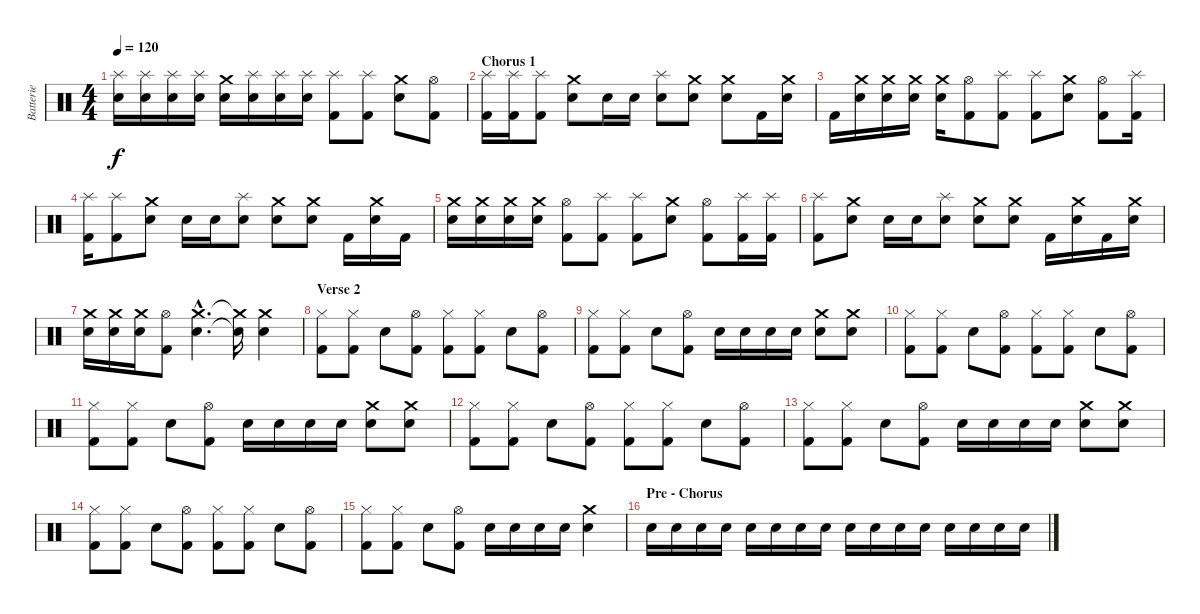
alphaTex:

\track ("Batterie" "Batterie") {instrument percussion}
\staff {score}
\articulation defaults
\ts (4 4)
\tempo 120
\clef neutral
\ks c
("Splash (hit)" "Snare (hit) 2").16{dy f} ("Splash (hit)" "Snare (hit) 2").16 ("Splash (hit)" "Snare (hit) 2").16 ("Splash (hit)" "Snare (hit) 2").16 ("Crash medium (hit)" "Snare (hit) 2").16 ("Splash (hit)" "Snare (hit) 2").16 ("Splash (hit)" "Snare (hit) 2").16 ("Splash (hit)" "Snare (hit) 2").16 ("Splash (hit)" "Kick (hit) 2").8 ("Splash (hit)" "Kick (hit) 2").8 ("Crash medium (hit)" "Snare (hit) 2").8 ("Hi-Hat (open)" "Kick (hit) 2").8 |
\section ("" "Chorus 1")
("Splash (hit)" "Kick (hit) 2").16 ("Splash (hit)" "Kick (hit) 2").16 ("Splash (hit)" "Kick (hit) 2").8 ("Crash medium (hit)" "Snare (hit) 2").8 "Snare (hit) 2".16 "Snare (hit) 2".16 ("Splash (hit)" "Snare (hit) 2").8 ("Crash medium (hit)" "Snare (hit) 2").8 ("Crash medium (hit)" "Snare (hit) 2").8 "Kick (hit) 2".16 ("Crash medium (hit)" "Snare (hit) 2").16 |
"Kick (hit) 2".16 ("Crash medium (hit)" "Snare (hit) 2").16 ("Crash medium (hit)" "Snare (hit) 2").16 ("Crash medium (hit)" "Snare (hit) 2").16 ("Crash medium (hit)" "Snare (hit) 2").16 ("Hi-Hat (open)" "Kick (hit) 2").8 ("Splash (hit)" "Kick (hit) 2").8 ("Splash (hit)" "Kick (hit) 2").8 ("Crash medium (hit)" "Snare (hit) 2").8 ("Hi-Hat (open)" "Kick (hit) 2").8 ("Splash (hit)" "Kick (hit) 2").16 |
("Splash (hit)" "Kick (hit) 2").16 ("Splash (hit)" "Kick (hit) 2").8 ("Crash medium (hit)" "Snare (hit) 2").8 "Snare (hit) 2".16 "Snare (hit) 2".16 ("Splash (hit)" "Snare (hit) 2").8 ("Crash medium (hit)" "Snare (hit) 2").8 ("Crash medium (hit)" "Snare (hit) 2").8 "Kick (hit) 2".16 ("Crash medium (hit)" "Snare (hit) 2").16 "Kick (hit) 2".16 |
("Crash medium (hit)" "Snare (hit) 2").16 ("Crash medium (hit)" "Snare (hit) 2").16 ("Crash medium (hit)" "Snare (hit) 2").16 ("Crash medium (hit)" "Snare (hit) 2").16 ("Hi-Hat (open)" "Kick (hit) 2").8 ("Splash (hit)" "Kick (hit) 2").8 ("Splash (hit)" "Kick (hit) 2").8 ("Crash medium (hit)" "Snare (hit) 2").8 ("Hi-Hat (open)" "Kick (hit) 2").8 ("Splash (hit)" "Kick (hit) 2").16 ("Splash (hit)" "Kick (hit) 2").16 |
("Splash (hit)" "Kick (hit) 2").8 ("Crash medium (hit)" "Snare (hit) 2").8 "Snare (hit) 2".16 "Snare (hit) 2".16 ("Splash (hit)" "Snare (hit) 2").8 ("Crash medium (hit)" "Snare (hit) 2").8 ("Crash medium (hit)" "Snare (hit) 2").8 "Kick (hit) 2".16 ("Crash medium (hit)" "Snare (hit) 2").16 "Kick (hit) 2".16 ("Crash medium (hit)" "Snare (hit) 2").16 |
("Crash medium (hit)" "Snare (hit) 2").16 ("Crash medium (hit)" "Snare (hit) 2").16 ("Crash medium (hit)" "Snare (hit) 2").16 ("Hi-Hat (open)" "Kick (hit) 2").8 ("Crash medium (hit)"{hac} "Snare (hit) 2"{hac}).4{d} ("Crash medium (hit)"{t} "Snare (hit) 2"{t}).16 ("Crash medium (hit)" "Snare (hit) 2").4 |
\section ("" "Verse 2")
("Hi-Hat (closed)" "Kick (hit) 2").8 ("Hi-Hat (closed)" "Kick (hit) 2").8 "Snare (hit) 2".8 ("Hi-Hat (open)" "Kick (hit) 2").8 ("Hi-Hat (closed)" "Kick (hit) 2").8 ("Hi-Hat (closed)" "Kick (hit) 2").8 "Snare (hit) 2".8 ("Hi-Hat (open)" "Kick (hit) 2").8 |
("Hi-Hat (closed)" "Kick (hit) 2").8 ("Hi-Hat (closed)" "Kick (hit) 2").8 "Snare (hit) 2".8 ("Hi-Hat (open)" "Kick (hit) 2").8 "Snare (hit) 2".16 "Snare (hit) 2".16 "Snare (hit) 2".16 "Snare (hit) 2".16 ("Crash medium (hit)" "Snare (hit) 2").8 ("Crash medium (hit)" "Snare (hit) 2").8 |
("Hi-Hat (closed)" "Kick (hit) 2").8 ("Hi-Hat (closed)" "Kick (hit) 2").8 "Snare (hit) 2".8 ("Hi-Hat (open)" "Kick (hit) 2").8 ("Hi-Hat (closed)" "Kick (hit) 2").8 ("Hi-Hat (closed)" "Kick (hit) 2").8 "Snare (hit) 2".8 ("Hi-Hat (open)" "Kick (hit) 2").8 |
("Hi-Hat (closed)" "Kick (hit) 2").8 ("Hi-Hat (closed)" "Kick (hit) 2").8 "Snare (hit) 2".8 ("Hi-Hat (open)" "Kick (hit) 2").8 "Snare (hit) 2".16 "Snare (hit) 2".16 "Snare (hit) 2".16 "Snare (hit) 2".16 ("Crash medium (hit)" "Snare (hit) 2").8 ("Crash medium (hit)" "Snare (hit) 2").8 |
("Hi-Hat (closed)" "Kick (hit) 2").8 ("Hi-Hat (closed)" "Kick (hit) 2").8 "Snare (hit) 2".8 ("Hi-Hat (open)" "Kick (hit) 2").8 ("Hi-Hat (closed)" "Kick (hit) 2").8 ("Hi-Hat (closed)" "Kick (hit) 2").8 "Snare (hit) 2".8 ("Hi-Hat (open)" "Kick (hit) 2").8 |
("Hi-Hat (closed)" "Kick (hit) 2").8 ("Hi-Hat (closed)" "Kick (hit) 2").8 "Snare (hit) 2".8 ("Hi-Hat (open)" "Kick (hit) 2").8 "Snare (hit) 2".16 "Snare (hit) 2".16 "Snare (hit) 2".16 "Snare (hit) 2".16 ("Crash medium (hit)" "Snare (hit) 2").8 ("Crash medium (hit)" "Snare (hit) 2").8 |
("Hi-Hat (closed)" "Kick (hit) 2").8 ("Hi-Hat (closed)" "Kick (hit) 2").8 "Snare (hit) 2".8 ("Hi-Hat (open)" "Kick (hit) 2").8 ("Hi-Hat (closed)" "Kick (hit) 2").8 ("Hi-Hat (closed)" "Kick (hit) 2").8 "Snare (hit) 2".8 ("Hi-Hat (open)" "Kick (hit) 2").8 |
("Hi-Hat (closed)" "Kick (hit) 2").8 ("Hi-Hat (closed)" "Kick (hit) 2").8 "Snare (hit) 2".8 ("Hi-Hat (open)" "Kick (hit) 2").8 "Snare (hit) 2".16 "Snare (hit) 2".16 "Snare (hit) 2".16 "Snare (hit) 2".16 ("Crash medium (hit)" "Snare (hit) 2").4 |
\section ("" "Pre - Chorus")
"Snare (hit) 2".16{volume 8} "Snare (hit) 2".16{volume 13} "Snare (hit) 2".16 "Snare (hit) 2".16 "Snare (hit) 2".16 "Snare (hit) 2".16 "Snare (hit) 2".16 "Snare (hit) 2".16 "Snare (hit) 2".16 "Snare (hit) 2".16 "Snare (hit) 2".16 "Snare (hit) 2".16 "Snare (hit) 2".16{volume 8} "Snare (hit) 2".16{volume 13} "Snare (hit) 2".16 "Snare (hit) 2".16
